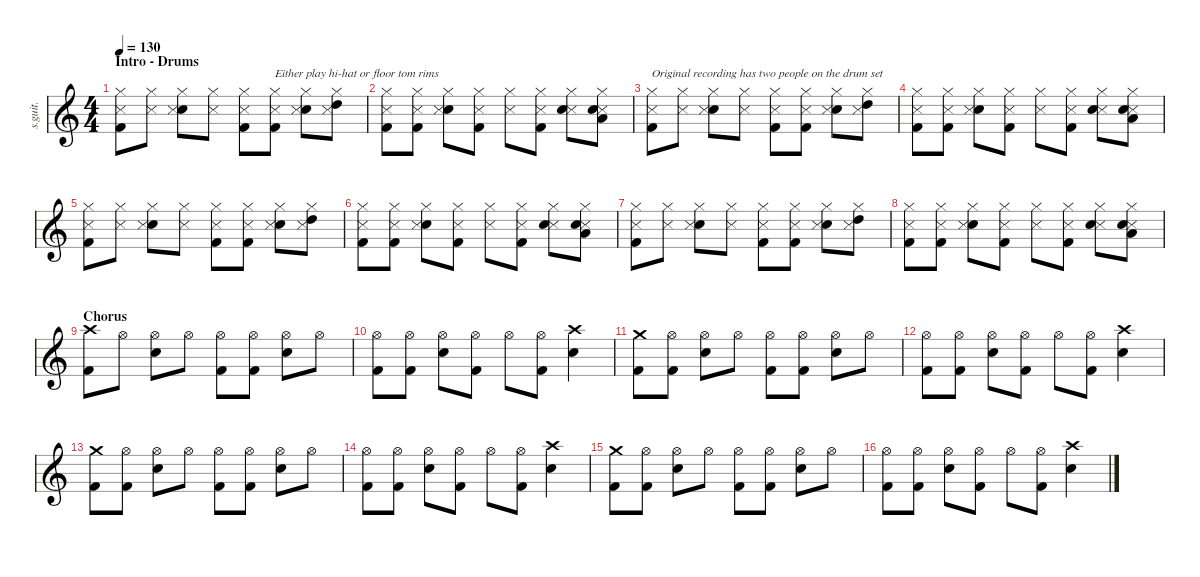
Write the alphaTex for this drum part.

\defaultSystemsLayout 4
\hideDynamics
\bracketExtendMode nobrackets
\track ("Rowntree & Coxon - Drums" "s.guit.") {instrument percussion}
\staff {score}
\articulation defaults
\ts (4 4)
\beaming (8 2 2 2 2)
\section ("" "Intro - Drums")
\tempo 130
\clef g2
\ks c
("Kick (hit) 2" "Snare (side stick) 3" "Hi-Hat (closed)").8{lyrics (0 "") lyrics (1 "") lyrics (2 "") lyrics (3 "") lyrics (4 "") dy f} ("Snare (side stick) 3" "Hi-Hat (closed)").8{lyrics (0 "") lyrics (1 "") lyrics (2 "") lyrics (3 "") lyrics (4 "")} ("Snare (hit) 2" "Snare (side stick) 3" "Hi-Hat (closed)").8{lyrics (0 "") lyrics (1 "") lyrics (2 "") lyrics (3 "") lyrics (4 "")} ("Snare (side stick) 3" "Hi-Hat (closed)").8{lyrics (0 "") lyrics (1 "") lyrics (2 "") lyrics (3 "") lyrics (4 "")} ("Kick (hit) 2" "Snare (side stick) 3" "Hi-Hat (closed)").8{lyrics (0 "") lyrics (1 "") lyrics (2 "") lyrics (3 "") lyrics (4 "")} ("Kick (hit) 2" "Snare (side stick) 3" "Hi-Hat (closed)").8{txt "Either play hi-hat or floor tom rims" lyrics (0 "") lyrics (1 "") lyrics (2 "") lyrics (3 "") lyrics (4 "")} ("Snare (hit) 2" "Snare (side stick) 3" "Hi-Hat (closed)").8{lyrics (0 "") lyrics (1 "") lyrics (2 "") lyrics (3 "") lyrics (4 "")} ("Snare (side stick) 3" "Hi-Hat (closed)" "High Tom (hit)").8{lyrics (0 "") lyrics (1 "") lyrics (2 "") lyrics (3 "") lyrics (4 "")} |
("Kick (hit) 2" "Snare (side stick) 3" "Hi-Hat (closed)").8{lyrics (0 "") lyrics (1 "") lyrics (2 "") lyrics (3 "") lyrics (4 "")} ("Kick (hit) 2" "Snare (side stick) 3" "Hi-Hat (closed)").8{lyrics (0 "") lyrics (1 "") lyrics (2 "") lyrics (3 "") lyrics (4 "")} ("Snare (hit) 2" "Snare (side stick) 3" "Hi-Hat (closed)").8{lyrics (0 "") lyrics (1 "") lyrics (2 "") lyrics (3 "") lyrics (4 "")} ("Kick (hit) 2" "Snare (side stick) 3" "Hi-Hat (closed)").8{lyrics (0 "") lyrics (1 "") lyrics (2 "") lyrics (3 "") lyrics (4 "")} ("Snare (side stick) 3" "Hi-Hat (closed)").8{lyrics (0 "") lyrics (1 "") lyrics (2 "") lyrics (3 "") lyrics (4 "")} ("Kick (hit) 2" "Snare (side stick) 3" "Hi-Hat (closed)").8{lyrics (0 "") lyrics (1 "") lyrics (2 "") lyrics (3 "") lyrics (4 "")} ("Snare (side stick) 3" "Snare (hit) 2" "Hi-Hat (closed)").8{lyrics (0 "") lyrics (1 "") lyrics (2 "") lyrics (3 "") lyrics (4 "")} ("Snare (side stick) 3" "Snare (hit) 2" "Low Floor Tom (hit)" "Hi-Hat (closed)").8{lyrics (0 "") lyrics (1 "") lyrics (2 "") lyrics (3 "") lyrics (4 "")} |
("Kick (hit) 2" "Snare (side stick) 3" "Hi-Hat (closed)").8{txt "Original recording has two people on the drum set" lyrics (0 "") lyrics (1 "") lyrics (2 "") lyrics (3 "") lyrics (4 "")} ("Snare (side stick) 3" "Hi-Hat (closed)").8{lyrics (0 "") lyrics (1 "") lyrics (2 "") lyrics (3 "") lyrics (4 "")} ("Snare (hit) 2" "Snare (side stick) 3" "Hi-Hat (closed)").8{lyrics (0 "") lyrics (1 "") lyrics (2 "") lyrics (3 "") lyrics (4 "")} ("Snare (side stick) 3" "Hi-Hat (closed)").8{lyrics (0 "") lyrics (1 "") lyrics (2 "") lyrics (3 "") lyrics (4 "")} ("Kick (hit) 2" "Snare (side stick) 3" "Hi-Hat (closed)").8{lyrics (0 "") lyrics (1 "") lyrics (2 "") lyrics (3 "") lyrics (4 "")} ("Kick (hit) 2" "Snare (side stick) 3" "Hi-Hat (closed)").8{lyrics (0 "") lyrics (1 "") lyrics (2 "") lyrics (3 "") lyrics (4 "")} ("Snare (hit) 2" "Snare (side stick) 3" "Hi-Hat (closed)").8{lyrics (0 "") lyrics (1 "") lyrics (2 "") lyrics (3 "") lyrics (4 "")} ("High Tom (hit)" "Snare (side stick) 3" "Hi-Hat (closed)").8{lyrics (0 "") lyrics (1 "") lyrics (2 "") lyrics (3 "") lyrics (4 "")} |
("Kick (hit) 2" "Snare (side stick) 3" "Hi-Hat (closed)").8{lyrics (0 "") lyrics (1 "") lyrics (2 "") lyrics (3 "") lyrics (4 "")} ("Kick (hit) 2" "Snare (side stick) 3" "Hi-Hat (closed)").8{lyrics (0 "") lyrics (1 "") lyrics (2 "") lyrics (3 "") lyrics (4 "")} ("Snare (hit) 2" "Snare (side stick) 3" "Hi-Hat (closed)").8{lyrics (0 "") lyrics (1 "") lyrics (2 "") lyrics (3 "") lyrics (4 "")} ("Kick (hit) 2" "Snare (side stick) 3" "Hi-Hat (closed)").8{lyrics (0 "") lyrics (1 "") lyrics (2 "") lyrics (3 "") lyrics (4 "")} ("Snare (side stick) 3" "Hi-Hat (closed)").8{lyrics (0 "") lyrics (1 "") lyrics (2 "") lyrics (3 "") lyrics (4 "")} ("Kick (hit) 2" "Snare (side stick) 3" "Hi-Hat (closed)").8{lyrics (0 "") lyrics (1 "") lyrics (2 "") lyrics (3 "") lyrics (4 "")} ("Snare (side stick) 3" "Snare (hit) 2" "Hi-Hat (closed)").8{lyrics (0 "") lyrics (1 "") lyrics (2 "") lyrics (3 "") lyrics (4 "")} ("Snare (side stick) 3" "Snare (hit) 2" "Low Floor Tom (hit)" "Hi-Hat (closed)").8{lyrics (0 "") lyrics (1 "") lyrics (2 "") lyrics (3 "") lyrics (4 "")} |
("Kick (hit) 2" "Snare (side stick) 3" "Hi-Hat (closed)").8{lyrics (0 "") lyrics (1 "") lyrics (2 "") lyrics (3 "") lyrics (4 "")} ("Snare (side stick) 3" "Hi-Hat (closed)").8{lyrics (0 "") lyrics (1 "") lyrics (2 "") lyrics (3 "") lyrics (4 "")} ("Snare (hit) 2" "Snare (side stick) 3" "Hi-Hat (closed)").8{lyrics (0 "") lyrics (1 "") lyrics (2 "") lyrics (3 "") lyrics (4 "")} ("Snare (side stick) 3" "Hi-Hat (closed)").8{lyrics (0 "") lyrics (1 "") lyrics (2 "") lyrics (3 "") lyrics (4 "")} ("Kick (hit) 2" "Snare (side stick) 3" "Hi-Hat (closed)").8{lyrics (0 "") lyrics (1 "") lyrics (2 "") lyrics (3 "") lyrics (4 "")} ("Kick (hit) 2" "Snare (side stick) 3" "Hi-Hat (closed)").8{lyrics (0 "") lyrics (1 "") lyrics (2 "") lyrics (3 "") lyrics (4 "")} ("Snare (hit) 2" "Snare (side stick) 3" "Hi-Hat (closed)").8{lyrics (0 "") lyrics (1 "") lyrics (2 "") lyrics (3 "") lyrics (4 "")} ("Snare (side stick) 3" "Hi-Hat (closed)" "High Tom (hit)").8{lyrics (0 "") lyrics (1 "") lyrics (2 "") lyrics (3 "") lyrics (4 "")} |
("Kick (hit) 2" "Snare (side stick) 3" "Hi-Hat (closed)").8{lyrics (0 "") lyrics (1 "") lyrics (2 "") lyrics (3 "") lyrics (4 "")} ("Kick (hit) 2" "Snare (side stick) 3" "Hi-Hat (closed)").8{lyrics (0 "") lyrics (1 "") lyrics (2 "") lyrics (3 "") lyrics (4 "")} ("Snare (hit) 2" "Snare (side stick) 3" "Hi-Hat (closed)").8{lyrics (0 "") lyrics (1 "") lyrics (2 "") lyrics (3 "") lyrics (4 "")} ("Kick (hit) 2" "Snare (side stick) 3" "Hi-Hat (closed)").8{lyrics (0 "") lyrics (1 "") lyrics (2 "") lyrics (3 "") lyrics (4 "")} ("Snare (side stick) 3" "Hi-Hat (closed)").8{lyrics (0 "") lyrics (1 "") lyrics (2 "") lyrics (3 "") lyrics (4 "")} ("Kick (hit) 2" "Snare (side stick) 3" "Hi-Hat (closed)").8{lyrics (0 "") lyrics (1 "") lyrics (2 "") lyrics (3 "") lyrics (4 "")} ("Snare (side stick) 3" "Snare (hit) 2" "Hi-Hat (closed)").8{lyrics (0 "") lyrics (1 "") lyrics (2 "") lyrics (3 "") lyrics (4 "")} ("Snare (side stick) 3" "Snare (hit) 2" "Low Floor Tom (hit)" "Hi-Hat (closed)").8{lyrics (0 "") lyrics (1 "") lyrics (2 "") lyrics (3 "") lyrics (4 "")} |
("Kick (hit) 2" "Snare (side stick) 3" "Hi-Hat (closed)").8{lyrics (0 "") lyrics (1 "") lyrics (2 "") lyrics (3 "") lyrics (4 "")} ("Snare (side stick) 3" "Hi-Hat (closed)").8{lyrics (0 "") lyrics (1 "") lyrics (2 "") lyrics (3 "") lyrics (4 "")} ("Snare (hit) 2" "Snare (side stick) 3" "Hi-Hat (closed)").8{lyrics (0 "") lyrics (1 "") lyrics (2 "") lyrics (3 "") lyrics (4 "")} ("Snare (side stick) 3" "Hi-Hat (closed)").8{lyrics (0 "") lyrics (1 "") lyrics (2 "") lyrics (3 "") lyrics (4 "")} ("Kick (hit) 2" "Snare (side stick) 3" "Hi-Hat (closed)").8{lyrics (0 "") lyrics (1 "") lyrics (2 "") lyrics (3 "") lyrics (4 "")} ("Kick (hit) 2" "Snare (side stick) 3" "Hi-Hat (closed)").8{lyrics (0 "") lyrics (1 "") lyrics (2 "") lyrics (3 "") lyrics (4 "")} ("Snare (hit) 2" "Snare (side stick) 3" "Hi-Hat (closed)").8{lyrics (0 "") lyrics (1 "") lyrics (2 "") lyrics (3 "") lyrics (4 "")} ("Snare (side stick) 3" "Hi-Hat (closed)" "High Tom (hit)").8{lyrics (0 "") lyrics (1 "") lyrics (2 "") lyrics (3 "") lyrics (4 "")} |
("Kick (hit) 2" "Snare (side stick) 3" "Hi-Hat (closed)").8{lyrics (0 "") lyrics (1 "") lyrics (2 "") lyrics (3 "") lyrics (4 "")} ("Kick (hit) 2" "Snare (side stick) 3" "Hi-Hat (closed)").8{lyrics (0 "") lyrics (1 "") lyrics (2 "") lyrics (3 "") lyrics (4 "")} ("Snare (hit) 2" "Snare (side stick) 3" "Hi-Hat (closed)").8{lyrics (0 "") lyrics (1 "") lyrics (2 "") lyrics (3 "") lyrics (4 "")} ("Kick (hit) 2" "Snare (side stick) 3" "Hi-Hat (closed)").8{lyrics (0 "") lyrics (1 "") lyrics (2 "") lyrics (3 "") lyrics (4 "")} ("Snare (side stick) 3" "Hi-Hat (closed)").8{lyrics (0 "") lyrics (1 "") lyrics (2 "") lyrics (3 "") lyrics (4 "")} ("Kick (hit) 2" "Snare (side stick) 3" "Hi-Hat (closed)").8{lyrics (0 "") lyrics (1 "") lyrics (2 "") lyrics (3 "") lyrics (4 "")} ("Snare (side stick) 3" "Snare (hit) 2" "Hi-Hat (closed)").8{lyrics (0 "") lyrics (1 "") lyrics (2 "") lyrics (3 "") lyrics (4 "")} ("Snare (side stick) 3" "Snare (hit) 2" "Low Floor Tom (hit)" "Hi-Hat (closed)").8{lyrics (0 "") lyrics (1 "") lyrics (2 "") lyrics (3 "") lyrics (4 "")} |
\section ("" "Chorus")
("Kick (hit) 2" "Crash high (hit)").8{lyrics (0 "") lyrics (1 "") lyrics (2 "") lyrics (3 "") lyrics (4 "")} "Hi-Hat (open)".8{lyrics (0 "") lyrics (1 "") lyrics (2 "") lyrics (3 "") lyrics (4 "")} ("Snare (hit) 2" "Hi-Hat (open)").8{lyrics (0 "") lyrics (1 "") lyrics (2 "") lyrics (3 "") lyrics (4 "")} "Hi-Hat (open)".8{lyrics (0 "") lyrics (1 "") lyrics (2 "") lyrics (3 "") lyrics (4 "")} ("Hi-Hat (open)" "Kick (hit) 2").8{lyrics (0 "") lyrics (1 "") lyrics (2 "") lyrics (3 "") lyrics (4 "")} ("Hi-Hat (open)" "Kick (hit) 2").8{lyrics (0 "") lyrics (1 "") lyrics (2 "") lyrics (3 "") lyrics (4 "")} ("Snare (hit) 2" "Hi-Hat (open)").8{lyrics (0 "") lyrics (1 "") lyrics (2 "") lyrics (3 "") lyrics (4 "")} "Hi-Hat (open)".8{lyrics (0 "") lyrics (1 "") lyrics (2 "") lyrics (3 "") lyrics (4 "")} |
("Hi-Hat (open)" "Kick (hit) 2").8{lyrics (0 "") lyrics (1 "") lyrics (2 "") lyrics (3 "") lyrics (4 "")} ("Hi-Hat (open)" "Kick (hit) 2").8{lyrics (0 "") lyrics (1 "") lyrics (2 "") lyrics (3 "") lyrics (4 "")} ("Snare (hit) 2" "Hi-Hat (open)").8{lyrics (0 "") lyrics (1 "") lyrics (2 "") lyrics (3 "") lyrics (4 "")} ("Hi-Hat (open)" "Kick (hit) 2").8{lyrics (0 "") lyrics (1 "") lyrics (2 "") lyrics (3 "") lyrics (4 "")} "Hi-Hat (open)".8{lyrics (0 "") lyrics (1 "") lyrics (2 "") lyrics (3 "") lyrics (4 "")} ("Hi-Hat (open)" "Kick (hit) 2").8{lyrics (0 "") lyrics (1 "") lyrics (2 "") lyrics (3 "") lyrics (4 "")} ("Snare (hit) 2" "Crash high (hit)").4{lyrics (0 "") lyrics (1 "") lyrics (2 "") lyrics (3 "") lyrics (4 "")} |
("Kick (hit) 2" "Crash medium (hit)").8{lyrics (0 "") lyrics (1 "") lyrics (2 "") lyrics (3 "") lyrics (4 "")} ("Hi-Hat (open)" "Kick (hit) 2").8{lyrics (0 "") lyrics (1 "") lyrics (2 "") lyrics (3 "") lyrics (4 "")} ("Snare (hit) 2" "Hi-Hat (open)").8{lyrics (0 "") lyrics (1 "") lyrics (2 "") lyrics (3 "") lyrics (4 "")} "Hi-Hat (open)".8{lyrics (0 "") lyrics (1 "") lyrics (2 "") lyrics (3 "") lyrics (4 "")} ("Hi-Hat (open)" "Kick (hit) 2").8{lyrics (0 "") lyrics (1 "") lyrics (2 "") lyrics (3 "") lyrics (4 "")} ("Hi-Hat (open)" "Kick (hit) 2").8{lyrics (0 "") lyrics (1 "") lyrics (2 "") lyrics (3 "") lyrics (4 "")} ("Snare (hit) 2" "Hi-Hat (open)").8{lyrics (0 "") lyrics (1 "") lyrics (2 "") lyrics (3 "") lyrics (4 "")} "Hi-Hat (open)".8{lyrics (0 "") lyrics (1 "") lyrics (2 "") lyrics (3 "") lyrics (4 "")} |
("Hi-Hat (open)" "Kick (hit) 2").8{lyrics (0 "") lyrics (1 "") lyrics (2 "") lyrics (3 "") lyrics (4 "")} ("Hi-Hat (open)" "Kick (hit) 2").8{lyrics (0 "") lyrics (1 "") lyrics (2 "") lyrics (3 "") lyrics (4 "")} ("Snare (hit) 2" "Hi-Hat (open)").8{lyrics (0 "") lyrics (1 "") lyrics (2 "") lyrics (3 "") lyrics (4 "")} ("Hi-Hat (open)" "Kick (hit) 2").8{lyrics (0 "") lyrics (1 "") lyrics (2 "") lyrics (3 "") lyrics (4 "")} "Hi-Hat (open)".8{lyrics (0 "") lyrics (1 "") lyrics (2 "") lyrics (3 "") lyrics (4 "")} ("Hi-Hat (open)" "Kick (hit) 2").8{lyrics (0 "") lyrics (1 "") lyrics (2 "") lyrics (3 "") lyrics (4 "")} ("Snare (hit) 2" "Crash high (hit)").4{lyrics (0 "") lyrics (1 "") lyrics (2 "") lyrics (3 "") lyrics (4 "")} |
("Crash medium (hit)" "Kick (hit) 2").8{lyrics (0 "") lyrics (1 "") lyrics (2 "") lyrics (3 "") lyrics (4 "")} ("Hi-Hat (open)" "Kick (hit) 2").8{lyrics (0 "") lyrics (1 "") lyrics (2 "") lyrics (3 "") lyrics (4 "")} ("Snare (hit) 2" "Hi-Hat (open)").8{lyrics (0 "") lyrics (1 "") lyrics (2 "") lyrics (3 "") lyrics (4 "")} "Hi-Hat (open)".8{lyrics (0 "") lyrics (1 "") lyrics (2 "") lyrics (3 "") lyrics (4 "")} ("Hi-Hat (open)" "Kick (hit) 2").8{lyrics (0 "") lyrics (1 "") lyrics (2 "") lyrics (3 "") lyrics (4 "")} ("Hi-Hat (open)" "Kick (hit) 2").8{lyrics (0 "") lyrics (1 "") lyrics (2 "") lyrics (3 "") lyrics (4 "")} ("Snare (hit) 2" "Hi-Hat (open)").8{lyrics (0 "") lyrics (1 "") lyrics (2 "") lyrics (3 "") lyrics (4 "")} "Hi-Hat (open)".8{lyrics (0 "") lyrics (1 "") lyrics (2 "") lyrics (3 "") lyrics (4 "")} |
("Hi-Hat (open)" "Kick (hit) 2").8{lyrics (0 "") lyrics (1 "") lyrics (2 "") lyrics (3 "") lyrics (4 "")} ("Hi-Hat (open)" "Kick (hit) 2").8{lyrics (0 "") lyrics (1 "") lyrics (2 "") lyrics (3 "") lyrics (4 "")} ("Snare (hit) 2" "Hi-Hat (open)").8{lyrics (0 "") lyrics (1 "") lyrics (2 "") lyrics (3 "") lyrics (4 "")} ("Hi-Hat (open)" "Kick (hit) 2").8{lyrics (0 "") lyrics (1 "") lyrics (2 "") lyrics (3 "") lyrics (4 "")} "Hi-Hat (open)".8{lyrics (0 "") lyrics (1 "") lyrics (2 "") lyrics (3 "") lyrics (4 "")} ("Hi-Hat (open)" "Kick (hit) 2").8{lyrics (0 "") lyrics (1 "") lyrics (2 "") lyrics (3 "") lyrics (4 "")} ("Snare (hit) 2" "Crash high (hit)").4{lyrics (0 "") lyrics (1 "") lyrics (2 "") lyrics (3 "") lyrics (4 "")} |
("Crash medium (hit)" "Kick (hit) 2").8{lyrics (0 "") lyrics (1 "") lyrics (2 "") lyrics (3 "") lyrics (4 "")} ("Hi-Hat (open)" "Kick (hit) 2").8{lyrics (0 "") lyrics (1 "") lyrics (2 "") lyrics (3 "") lyrics (4 "")} ("Snare (hit) 2" "Hi-Hat (open)").8{lyrics (0 "") lyrics (1 "") lyrics (2 "") lyrics (3 "") lyrics (4 "")} "Hi-Hat (open)".8{lyrics (0 "") lyrics (1 "") lyrics (2 "") lyrics (3 "") lyrics (4 "")} ("Hi-Hat (open)" "Kick (hit) 2").8{lyrics (0 "") lyrics (1 "") lyrics (2 "") lyrics (3 "") lyrics (4 "")} ("Hi-Hat (open)" "Kick (hit) 2").8{lyrics (0 "") lyrics (1 "") lyrics (2 "") lyrics (3 "") lyrics (4 "")} ("Snare (hit) 2" "Hi-Hat (open)").8{lyrics (0 "") lyrics (1 "") lyrics (2 "") lyrics (3 "") lyrics (4 "")} "Hi-Hat (open)".8{lyrics (0 "") lyrics (1 "") lyrics (2 "") lyrics (3 "") lyrics (4 "")} |
("Hi-Hat (open)" "Kick (hit) 2").8{lyrics (0 "") lyrics (1 "") lyrics (2 "") lyrics (3 "") lyrics (4 "")} ("Hi-Hat (open)" "Kick (hit) 2").8{lyrics (0 "") lyrics (1 "") lyrics (2 "") lyrics (3 "") lyrics (4 "")} ("Snare (hit) 2" "Hi-Hat (open)").8{lyrics (0 "") lyrics (1 "") lyrics (2 "") lyrics (3 "") lyrics (4 "")} ("Hi-Hat (open)" "Kick (hit) 2").8{lyrics (0 "") lyrics (1 "") lyrics (2 "") lyrics (3 "") lyrics (4 "")} "Hi-Hat (open)".8{lyrics (0 "") lyrics (1 "") lyrics (2 "") lyrics (3 "") lyrics (4 "")} ("Hi-Hat (open)" "Kick (hit) 2").8{lyrics (0 "") lyrics (1 "") lyrics (2 "") lyrics (3 "") lyrics (4 "")} ("Snare (hit) 2" "Crash high (hit)").4{lyrics (0 "") lyrics (1 "") lyrics (2 "") lyrics (3 "") lyrics (4 "")}
